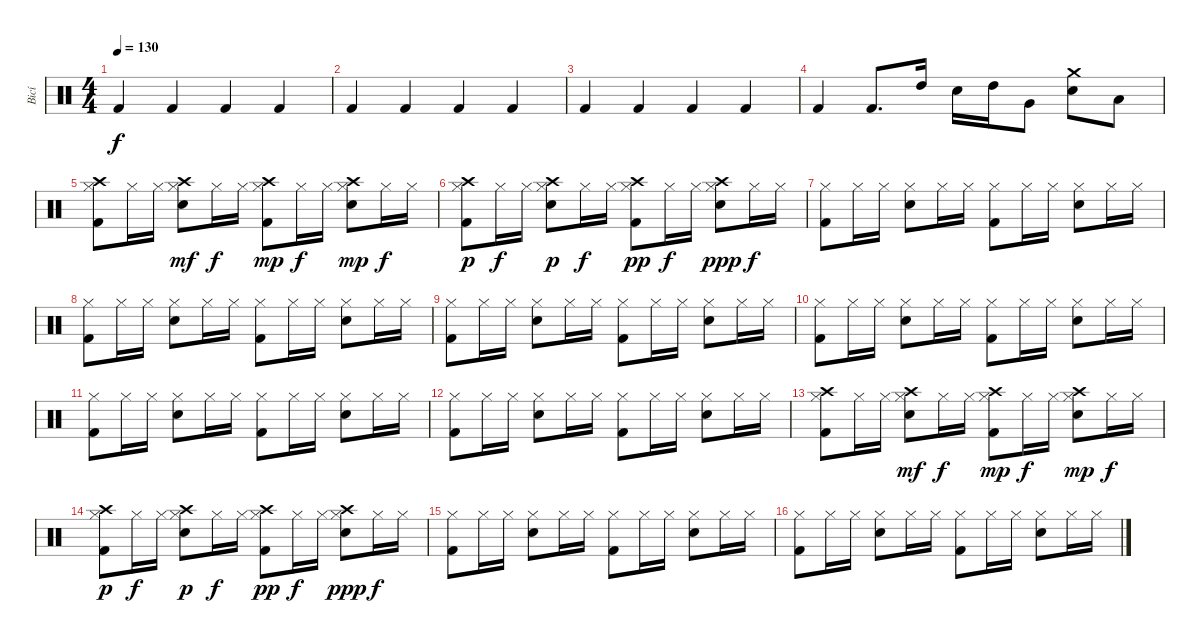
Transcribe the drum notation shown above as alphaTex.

\track ("Bicí" "Bicí") {instrument percussion}
\staff {score}
\articulation defaults
\ts (4 4)
\tempo 130
\clef neutral
\ks c "Kick (hit) 2".4{dy f} "Kick (hit) 2".4 "Kick (hit) 2".4 "Kick (hit) 2".4
|
"Kick (hit) 2".4 "Kick (hit) 2".4 "Kick (hit) 2".4 "Kick (hit) 2".4 |
"Kick (hit) 2".4 "Kick (hit) 2".4 "Kick (hit) 2".4 "Kick (hit) 2".4 |
"Kick (hit) 2".4 "Kick (hit) 2".8{d} "High Tom (hit)".16 "Electric Snare (hit)".16 "High Tom (hit)".16 "Very Low Tom (hit)".8 ("Electric Snare (hit)" "Crash medium (hit)").8 "Low Tom (hit)".8 |
("Kick (hit) 2" "Hi-Hat (closed)" "Crash high (hit)").8 "Hi-Hat (closed)".16 "Hi-Hat (closed)".16 ("Hi-Hat (closed)" "Snare (hit) 2" "Crash high (hit)").8{dy mf} "Hi-Hat (closed)".16{dy f} "Hi-Hat (closed)".16 ("Kick (hit) 2" "Hi-Hat (closed)" "Crash high (hit)").8{dy mp} "Hi-Hat (closed)".16{dy f} "Hi-Hat (closed)".16 ("Hi-Hat (closed)" "Snare (hit) 2" "Crash high (hit)").8{dy mp} "Hi-Hat (closed)".16{dy f} "Hi-Hat (closed)".16 |
("Kick (hit) 2" "Hi-Hat (closed)" "Crash high (hit)").8{dy p} "Hi-Hat (closed)".16{dy f} "Hi-Hat (closed)".16 ("Hi-Hat (closed)" "Snare (hit) 2" "Crash high (hit)").8{dy p} "Hi-Hat (closed)".16{dy f} "Hi-Hat (closed)".16 ("Kick (hit) 2" "Hi-Hat (closed)" "Crash high (hit)").8{dy pp} "Hi-Hat (closed)".16{dy f} "Hi-Hat (closed)".16 ("Hi-Hat (closed)" "Snare (hit) 2" "Crash high (hit)").8{dy ppp} "Hi-Hat (closed)".16{dy f} "Hi-Hat (closed)".16 |
("Kick (hit) 2" "Hi-Hat (closed)").8 "Hi-Hat (closed)".16 "Hi-Hat (closed)".16 ("Hi-Hat (closed)" "Snare (hit) 2").8 "Hi-Hat (closed)".16 "Hi-Hat (closed)".16 ("Kick (hit) 2" "Hi-Hat (closed)").8 "Hi-Hat (closed)".16 "Hi-Hat (closed)".16 ("Hi-Hat (closed)" "Snare (hit) 2").8 "Hi-Hat (closed)".16 "Hi-Hat (closed)".16 |
("Kick (hit) 2" "Hi-Hat (closed)").8 "Hi-Hat (closed)".16 "Hi-Hat (closed)".16 ("Hi-Hat (closed)" "Snare (hit) 2").8 "Hi-Hat (closed)".16 "Hi-Hat (closed)".16 ("Kick (hit) 2" "Hi-Hat (closed)").8 "Hi-Hat (closed)".16 "Hi-Hat (closed)".16 ("Hi-Hat (closed)" "Snare (hit) 2").8 "Hi-Hat (closed)".16 "Hi-Hat (closed)".16 |
("Kick (hit) 2" "Hi-Hat (closed)").8 "Hi-Hat (closed)".16 "Hi-Hat (closed)".16 ("Hi-Hat (closed)" "Snare (hit) 2").8 "Hi-Hat (closed)".16 "Hi-Hat (closed)".16 ("Kick (hit) 2" "Hi-Hat (closed)").8 "Hi-Hat (closed)".16 "Hi-Hat (closed)".16 ("Hi-Hat (closed)" "Snare (hit) 2").8 "Hi-Hat (closed)".16 "Hi-Hat (closed)".16 |
("Kick (hit) 2" "Hi-Hat (closed)").8 "Hi-Hat (closed)".16 "Hi-Hat (closed)".16 ("Hi-Hat (closed)" "Snare (hit) 2").8 "Hi-Hat (closed)".16 "Hi-Hat (closed)".16 ("Kick (hit) 2" "Hi-Hat (closed)").8 "Hi-Hat (closed)".16 "Hi-Hat (closed)".16 ("Hi-Hat (closed)" "Snare (hit) 2").8 "Hi-Hat (closed)".16 "Hi-Hat (closed)".16 |
("Kick (hit) 2" "Hi-Hat (closed)").8 "Hi-Hat (closed)".16 "Hi-Hat (closed)".16 ("Hi-Hat (closed)" "Snare (hit) 2").8 "Hi-Hat (closed)".16 "Hi-Hat (closed)".16 ("Kick (hit) 2" "Hi-Hat (closed)").8 "Hi-Hat (closed)".16 "Hi-Hat (closed)".16 ("Hi-Hat (closed)" "Snare (hit) 2").8 "Hi-Hat (closed)".16 "Hi-Hat (closed)".16 |
("Kick (hit) 2" "Hi-Hat (closed)").8 "Hi-Hat (closed)".16 "Hi-Hat (closed)".16 ("Hi-Hat (closed)" "Snare (hit) 2").8 "Hi-Hat (closed)".16 "Hi-Hat (closed)".16 ("Kick (hit) 2" "Hi-Hat (closed)").8 "Hi-Hat (closed)".16 "Hi-Hat (closed)".16 ("Hi-Hat (closed)" "Snare (hit) 2").8 "Hi-Hat (closed)".16 "Hi-Hat (closed)".16 |
("Kick (hit) 2" "Hi-Hat (closed)" "Crash high (hit)").8 "Hi-Hat (closed)".16 "Hi-Hat (closed)".16 ("Hi-Hat (closed)" "Snare (hit) 2" "Crash high (hit)").8{dy mf} "Hi-Hat (closed)".16{dy f} "Hi-Hat (closed)".16 ("Kick (hit) 2" "Hi-Hat (closed)" "Crash high (hit)").8{dy mp} "Hi-Hat (closed)".16{dy f} "Hi-Hat (closed)".16 ("Hi-Hat (closed)" "Snare (hit) 2" "Crash high (hit)").8{dy mp} "Hi-Hat (closed)".16{dy f} "Hi-Hat (closed)".16 |
("Kick (hit) 2" "Hi-Hat (closed)" "Crash high (hit)").8{dy p} "Hi-Hat (closed)".16{dy f} "Hi-Hat (closed)".16 ("Hi-Hat (closed)" "Snare (hit) 2" "Crash high (hit)").8{dy p} "Hi-Hat (closed)".16{dy f} "Hi-Hat (closed)".16 ("Kick (hit) 2" "Hi-Hat (closed)" "Crash high (hit)").8{dy pp} "Hi-Hat (closed)".16{dy f} "Hi-Hat (closed)".16 ("Hi-Hat (closed)" "Snare (hit) 2" "Crash high (hit)").8{dy ppp} "Hi-Hat (closed)".16{dy f} "Hi-Hat (closed)".16 |
("Kick (hit) 2" "Hi-Hat (closed)").8 "Hi-Hat (closed)".16 "Hi-Hat (closed)".16 ("Hi-Hat (closed)" "Snare (hit) 2").8 "Hi-Hat (closed)".16 "Hi-Hat (closed)".16 ("Kick (hit) 2" "Hi-Hat (closed)").8 "Hi-Hat (closed)".16 "Hi-Hat (closed)".16 ("Hi-Hat (closed)" "Snare (hit) 2").8 "Hi-Hat (closed)".16 "Hi-Hat (closed)".16 |
("Kick (hit) 2" "Hi-Hat (closed)").8 "Hi-Hat (closed)".16 "Hi-Hat (closed)".16 ("Hi-Hat (closed)" "Snare (hit) 2").8 "Hi-Hat (closed)".16 "Hi-Hat (closed)".16 ("Kick (hit) 2" "Hi-Hat (closed)").8 "Hi-Hat (closed)".16 "Hi-Hat (closed)".16 ("Hi-Hat (closed)" "Snare (hit) 2").8 "Hi-Hat (closed)".16 "Hi-Hat (closed)".16
